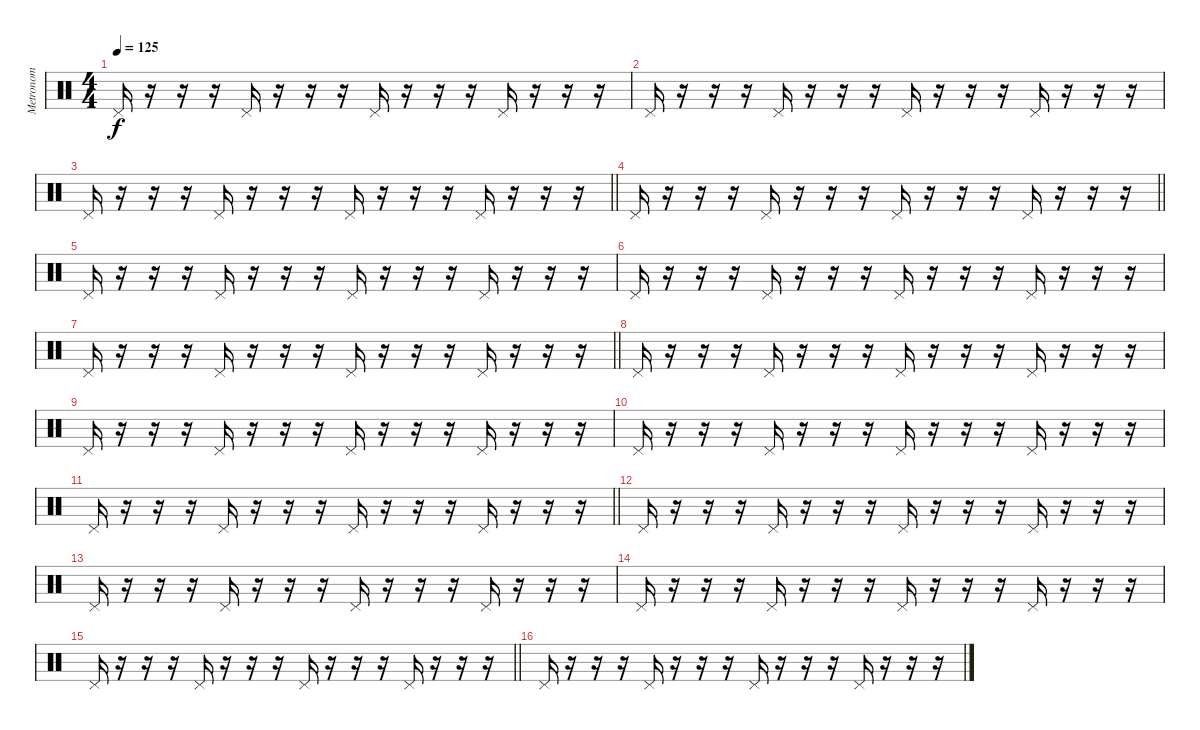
\track ("Metronom" "Metronom") {instrument percussion}
\staff {score}
\articulation defaults
\ts (4 4)
\section ("" "")
\tempo 125
\clef neutral
\ks c "Pedal Hi-Hat (hit)".16{dy f}
r.16 r.16 r.16 "Pedal Hi-Hat (hit)".16 r.16 r.16 r.16 "Pedal Hi-Hat (hit)".16 r.16 r.16 r.16 "Pedal Hi-Hat (hit)".16 r.16 r.16 r.16 |
"Pedal Hi-Hat (hit)".16 r.16 r.16 r.16 "Pedal Hi-Hat (hit)".16 r.16 r.16 r.16 "Pedal Hi-Hat (hit)".16 r.16 r.16 r.16 "Pedal Hi-Hat (hit)".16 r.16 r.16 r.16 |
\barLineRight lightlight "Pedal Hi-Hat (hit)".16
r.16 r.16 r.16 "Pedal Hi-Hat (hit)".16 r.16 r.16 r.16 "Pedal Hi-Hat (hit)".16 r.16 r.16 r.16 "Pedal Hi-Hat (hit)".16 r.16 r.16 r.16 |
\barLineRight lightlight "Pedal Hi-Hat (hit)".16
r.16 r.16 r.16 "Pedal Hi-Hat (hit)".16 r.16 r.16 r.16 "Pedal Hi-Hat (hit)".16 r.16 r.16 r.16 "Pedal Hi-Hat (hit)".16 r.16 r.16 r.16 |
\section ("" "")
"Pedal Hi-Hat (hit)".16 r.16 r.16 r.16 "Pedal Hi-Hat (hit)".16 r.16 r.16 r.16 "Pedal Hi-Hat (hit)".16 r.16 r.16 r.16 "Pedal Hi-Hat (hit)".16 r.16 r.16 r.16 |
"Pedal Hi-Hat (hit)".16 r.16 r.16 r.16 "Pedal Hi-Hat (hit)".16 r.16 r.16 r.16 "Pedal Hi-Hat (hit)".16 r.16 r.16 r.16 "Pedal Hi-Hat (hit)".16 r.16 r.16 r.16 |
\barLineRight lightlight "Pedal Hi-Hat (hit)".16
r.16 r.16 r.16 "Pedal Hi-Hat (hit)".16 r.16 r.16 r.16 "Pedal Hi-Hat (hit)".16 r.16 r.16 r.16 "Pedal Hi-Hat (hit)".16 r.16 r.16 r.16 |
"Pedal Hi-Hat (hit)".16 r.16 r.16 r.16 "Pedal Hi-Hat (hit)".16 r.16 r.16 r.16 "Pedal Hi-Hat (hit)".16 r.16 r.16 r.16 "Pedal Hi-Hat (hit)".16 r.16 r.16 r.16 |
"Pedal Hi-Hat (hit)".16 r.16 r.16 r.16 "Pedal Hi-Hat (hit)".16 r.16 r.16 r.16 "Pedal Hi-Hat (hit)".16 r.16 r.16 r.16 "Pedal Hi-Hat (hit)".16 r.16 r.16 r.16 |
"Pedal Hi-Hat (hit)".16 r.16 r.16 r.16 "Pedal Hi-Hat (hit)".16 r.16 r.16 r.16 "Pedal Hi-Hat (hit)".16 r.16 r.16 r.16 "Pedal Hi-Hat (hit)".16 r.16 r.16 r.16 |
\barLineRight lightlight "Pedal Hi-Hat (hit)".16
r.16 r.16 r.16 "Pedal Hi-Hat (hit)".16 r.16 r.16 r.16 "Pedal Hi-Hat (hit)".16 r.16 r.16 r.16 "Pedal Hi-Hat (hit)".16 r.16 r.16 r.16 |
"Pedal Hi-Hat (hit)".16 r.16 r.16 r.16 "Pedal Hi-Hat (hit)".16 r.16 r.16 r.16 "Pedal Hi-Hat (hit)".16 r.16 r.16 r.16 "Pedal Hi-Hat (hit)".16 r.16 r.16 r.16 |
"Pedal Hi-Hat (hit)".16 r.16 r.16 r.16 "Pedal Hi-Hat (hit)".16 r.16 r.16 r.16 "Pedal Hi-Hat (hit)".16 r.16 r.16 r.16 "Pedal Hi-Hat (hit)".16 r.16 r.16 r.16 |
"Pedal Hi-Hat (hit)".16 r.16 r.16 r.16 "Pedal Hi-Hat (hit)".16 r.16 r.16 r.16 "Pedal Hi-Hat (hit)".16 r.16 r.16 r.16 "Pedal Hi-Hat (hit)".16 r.16 r.16 r.16 |
\barLineRight lightlight "Pedal Hi-Hat (hit)".16
r.16 r.16 r.16 "Pedal Hi-Hat (hit)".16 r.16 r.16 r.16 "Pedal Hi-Hat (hit)".16 r.16 r.16 r.16 "Pedal Hi-Hat (hit)".16 r.16 r.16 r.16 |
"Pedal Hi-Hat (hit)".16 r.16 r.16 r.16 "Pedal Hi-Hat (hit)".16 r.16 r.16 r.16 "Pedal Hi-Hat (hit)".16 r.16 r.16 r.16 "Pedal Hi-Hat (hit)".16 r.16 r.16 r.16
